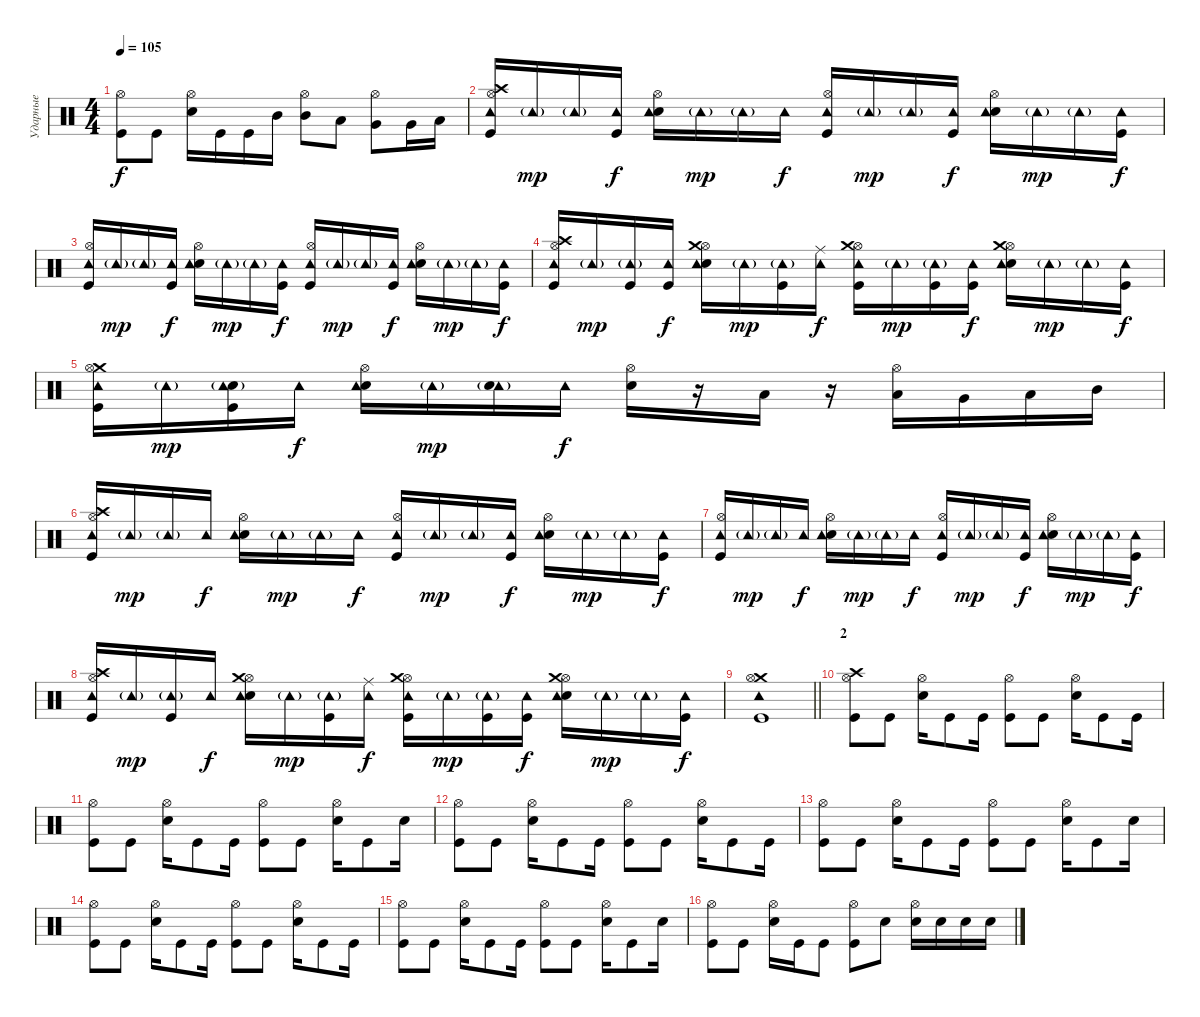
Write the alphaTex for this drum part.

\track ("Ударные" "Ударные") {instrument percussion}
\staff {score}
\articulation defaults
\ts (4 4)
\tempo 105
\clef neutral
\ks c
("Kick (hit)" "Hi-Hat (open)").8{dy f} "Kick (hit)".8 ("Electric Snare (hit)" "Hi-Hat (open)").16 "Kick (hit)".16 "Kick (hit)".16 "Mid Tom (hit)".16 ("Mid Tom (hit)" "Hi-Hat (open)").8 "Low Tom (hit)".8 ("Very Low Tom (hit)" "Hi-Hat (open)").8 "Very Low Tom (hit)".16 "Low Floor Tom (hit)".16 |
("Kick (hit)" "Crash high (hit)" "Hi-Hat (open)" "Tambourine (hit)").16 "Tambourine (hit)"{g}.16{dy mp} "Tambourine (hit)"{g}.16 ("Kick (hit)" "Tambourine (hit)").16{dy f} ("Electric Snare (hit)" "Hi-Hat (open)" "Tambourine (hit)").16 "Tambourine (hit)"{g}.16{dy mp} "Tambourine (hit)"{g}.16 "Tambourine (hit)".16{dy f} ("Kick (hit)" "Hi-Hat (open)" "Tambourine (hit)").16 "Tambourine (hit)"{g}.16{dy mp} "Tambourine (hit)"{g}.16 ("Kick (hit)" "Tambourine (hit)").16{dy f} ("Electric Snare (hit)" "Hi-Hat (open)" "Tambourine (hit)").16 "Tambourine (hit)"{g}.16{dy mp} "Tambourine (hit)"{g}.16 ("Kick (hit)" "Tambourine (hit)").16{dy f} |
("Kick (hit)" "Hi-Hat (open)" "Tambourine (hit)").16 "Tambourine (hit)"{g}.16{dy mp} "Tambourine (hit)"{g}.16 ("Kick (hit)" "Tambourine (hit)").16{dy f} ("Electric Snare (hit)" "Hi-Hat (open)" "Tambourine (hit)").16 "Tambourine (hit)"{g}.16{dy mp} "Tambourine (hit)"{g}.16 ("Kick (hit)" "Tambourine (hit)").16{dy f} ("Kick (hit)" "Hi-Hat (open)" "Tambourine (hit)").16 "Tambourine (hit)"{g}.16{dy mp} "Tambourine (hit)"{g}.16 ("Kick (hit)" "Tambourine (hit)").16{dy f} ("Electric Snare (hit)" "Hi-Hat (open)" "Tambourine (hit)").16 "Tambourine (hit)"{g}.16{dy mp} "Tambourine (hit)"{g}.16 ("Kick (hit)" "Tambourine (hit)").16{dy f} |
("Kick (hit)" "Crash high (hit)" "Hi-Hat (open)" "Tambourine (hit)").16 "Tambourine (hit)"{g}.16{dy mp} ("Kick (hit)" "Tambourine (hit)"{g}).16 ("Kick (hit)" "Tambourine (hit)").16{dy f} ("Electric Snare (hit)" "Hi-Hat (open)" "Crash medium (hit)" "Tambourine (hit)").16 "Tambourine (hit)"{g}.16{dy mp} ("Kick (hit)" "Tambourine (hit)"{g}).16 ("Ride (middle)" "Tambourine (hit)").16{dy f} ("Kick (hit)" "Hi-Hat (open)" "Crash medium (hit)" "Tambourine (hit)").16 "Tambourine (hit)"{g}.16{dy mp} ("Kick (hit)" "Tambourine (hit)"{g}).16 ("Kick (hit)" "Tambourine (hit)").16{dy f} ("Electric Snare (hit)" "Hi-Hat (open)" "Crash medium (hit)" "Tambourine (hit)").16 "Tambourine (hit)"{g}.16{dy mp} "Tambourine (hit)"{g}.16 ("Kick (hit)" "Tambourine (hit)").16{dy f} |
("Kick (hit)" "Crash medium (hit)" "Hi-Hat (open)" "Tambourine (hit)").16 "Tambourine (hit)"{g}.16{dy mp} ("Kick (hit)" "Electric Snare (hit)" "Tambourine (hit)"{g}).16 "Tambourine (hit)".16{dy f} ("Electric Snare (hit)" "Hi-Hat (open)" "Tambourine (hit)").16 "Tambourine (hit)"{g}.16{dy mp} ("Tambourine (hit)"{g} "Electric Snare (hit)").16 "Tambourine (hit)".16{dy f} ("Electric Snare (hit)" "Hi-Hat (open)").16 r.16 "Low Floor Tom (hit)".16 r.16 ("Low Floor Tom (hit)" "Hi-Hat (open)").16 "Very Low Tom (hit)".16 "Low Tom (hit)".16 "Mid Tom (hit)".16 |
("Kick (hit)" "Crash high (hit)" "Hi-Hat (open)" "Tambourine (hit)").16 "Tambourine (hit)"{g}.16{dy mp} "Tambourine (hit)"{g}.16 "Tambourine (hit)".16{dy f} ("Electric Snare (hit)" "Hi-Hat (open)" "Tambourine (hit)").16 "Tambourine (hit)"{g}.16{dy mp} "Tambourine (hit)"{g}.16 "Tambourine (hit)".16{dy f} ("Kick (hit)" "Hi-Hat (open)" "Tambourine (hit)").16 "Tambourine (hit)"{g}.16{dy mp} "Tambourine (hit)"{g}.16 ("Kick (hit)" "Tambourine (hit)").16{dy f} ("Electric Snare (hit)" "Hi-Hat (open)" "Tambourine (hit)").16 "Tambourine (hit)"{g}.16{dy mp} "Tambourine (hit)"{g}.16 ("Kick (hit)" "Tambourine (hit)").16{dy f} |
("Kick (hit)" "Hi-Hat (open)" "Tambourine (hit)").16 "Tambourine (hit)"{g}.16{dy mp} "Tambourine (hit)"{g}.16 "Tambourine (hit)".16{dy f} ("Electric Snare (hit)" "Hi-Hat (open)" "Tambourine (hit)").16 "Tambourine (hit)"{g}.16{dy mp} "Tambourine (hit)"{g}.16 "Tambourine (hit)".16{dy f} ("Kick (hit)" "Hi-Hat (open)" "Tambourine (hit)").16 "Tambourine (hit)"{g}.16{dy mp} "Tambourine (hit)"{g}.16 ("Kick (hit)" "Tambourine (hit)").16{dy f} ("Electric Snare (hit)" "Hi-Hat (open)" "Tambourine (hit)").16 "Tambourine (hit)"{g}.16{dy mp} "Tambourine (hit)"{g}.16 ("Kick (hit)" "Tambourine (hit)").16{dy f} |
("Kick (hit)" "Crash high (hit)" "Hi-Hat (open)" "Tambourine (hit)").16 "Tambourine (hit)"{g}.16{dy mp} ("Kick (hit)" "Tambourine (hit)"{g}).16 "Tambourine (hit)".16{dy f} ("Electric Snare (hit)" "Hi-Hat (open)" "Crash medium (hit)" "Tambourine (hit)").16 "Tambourine (hit)"{g}.16{dy mp} ("Kick (hit)" "Tambourine (hit)"{g}).16 ("Ride (middle)" "Tambourine (hit)").16{dy f} ("Kick (hit)" "Hi-Hat (open)" "Crash medium (hit)" "Tambourine (hit)").16 "Tambourine (hit)"{g}.16{dy mp} ("Kick (hit)" "Tambourine (hit)"{g}).16 ("Kick (hit)" "Tambourine (hit)").16{dy f} ("Electric Snare (hit)" "Hi-Hat (open)" "Crash medium (hit)" "Tambourine (hit)").16 "Tambourine (hit)"{g}.16{dy mp} "Tambourine (hit)"{g}.16 ("Kick (hit)" "Tambourine (hit)").16{dy f} |
\barLineRight lightlight
("Kick (hit)" "Crash medium (hit)" "Hi-Hat (open)" "Tambourine (hit)").1 |
\section ("" "2")
("Crash high (hit)" "Kick (hit)" "Hi-Hat (open)").8 "Kick (hit)".8 ("Electric Snare (hit)" "Hi-Hat (open)").16 "Kick (hit)".8 "Kick (hit)".16 ("Kick (hit)" "Hi-Hat (open)").8 "Kick (hit)".8 ("Electric Snare (hit)" "Hi-Hat (open)").16 "Kick (hit)".8 "Kick (hit)".16 |
("Kick (hit)" "Hi-Hat (open)").8 "Kick (hit)".8 ("Electric Snare (hit)" "Hi-Hat (open)").16 "Kick (hit)".8 "Kick (hit)".16 ("Kick (hit)" "Hi-Hat (open)").8 "Kick (hit)".8 ("Electric Snare (hit)" "Hi-Hat (open)").16 "Kick (hit)".8 "Electric Snare (hit)".16 |
("Kick (hit)" "Hi-Hat (open)").8 "Kick (hit)".8 ("Electric Snare (hit)" "Hi-Hat (open)").16 "Kick (hit)".8 "Kick (hit)".16 ("Kick (hit)" "Hi-Hat (open)").8 "Kick (hit)".8 ("Electric Snare (hit)" "Hi-Hat (open)").16 "Kick (hit)".8 "Kick (hit)".16 |
("Kick (hit)" "Hi-Hat (open)").8 "Kick (hit)".8 ("Electric Snare (hit)" "Hi-Hat (open)").16 "Kick (hit)".8 "Kick (hit)".16 ("Kick (hit)" "Hi-Hat (open)").8 "Kick (hit)".8 ("Electric Snare (hit)" "Hi-Hat (open)").16 "Kick (hit)".8 "Electric Snare (hit)".16 |
("Kick (hit)" "Hi-Hat (open)").8 "Kick (hit)".8 ("Electric Snare (hit)" "Hi-Hat (open)").16 "Kick (hit)".8 "Kick (hit)".16 ("Kick (hit)" "Hi-Hat (open)").8 "Kick (hit)".8 ("Electric Snare (hit)" "Hi-Hat (open)").16 "Kick (hit)".8 "Kick (hit)".16 |
("Kick (hit)" "Hi-Hat (open)").8 "Kick (hit)".8 ("Electric Snare (hit)" "Hi-Hat (open)").16 "Kick (hit)".8 "Kick (hit)".16 ("Kick (hit)" "Hi-Hat (open)").8 "Kick (hit)".8 ("Electric Snare (hit)" "Hi-Hat (open)").16 "Kick (hit)".8 "Electric Snare (hit)".16 |
("Kick (hit)" "Hi-Hat (open)").8 "Kick (hit)".8 ("Electric Snare (hit)" "Hi-Hat (open)").16 "Kick (hit)".16 "Kick (hit)".8 ("Kick (hit)" "Hi-Hat (open)").8 "Electric Snare (hit)".8 ("Electric Snare (hit)" "Hi-Hat (open)").16 "Electric Snare (hit)".16 "Electric Snare (hit)".16 "Electric Snare (hit)".16
